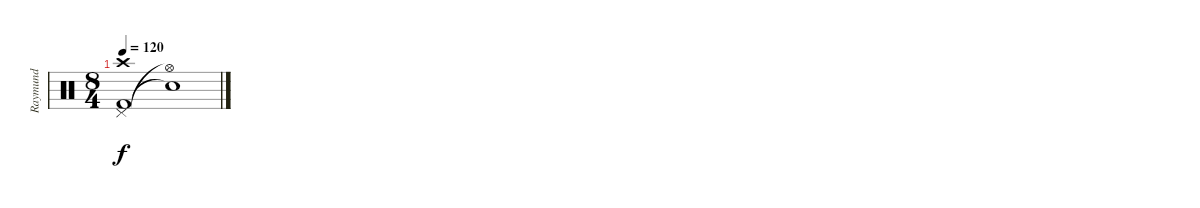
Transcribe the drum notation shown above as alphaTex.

\track ("Raymund" "Raymund") {instrument percussion}
\staff {score}
\articulation defaults
\ts (8 4)
\tempo 120
\clef neutral
\ks c
("Pedal Hi-Hat (hit)" "Kick (hit) 2" "Crash high (hit)").1{dy f} ("Hi-Hat (open)"{t} "Snare (hit)"{t}).1
